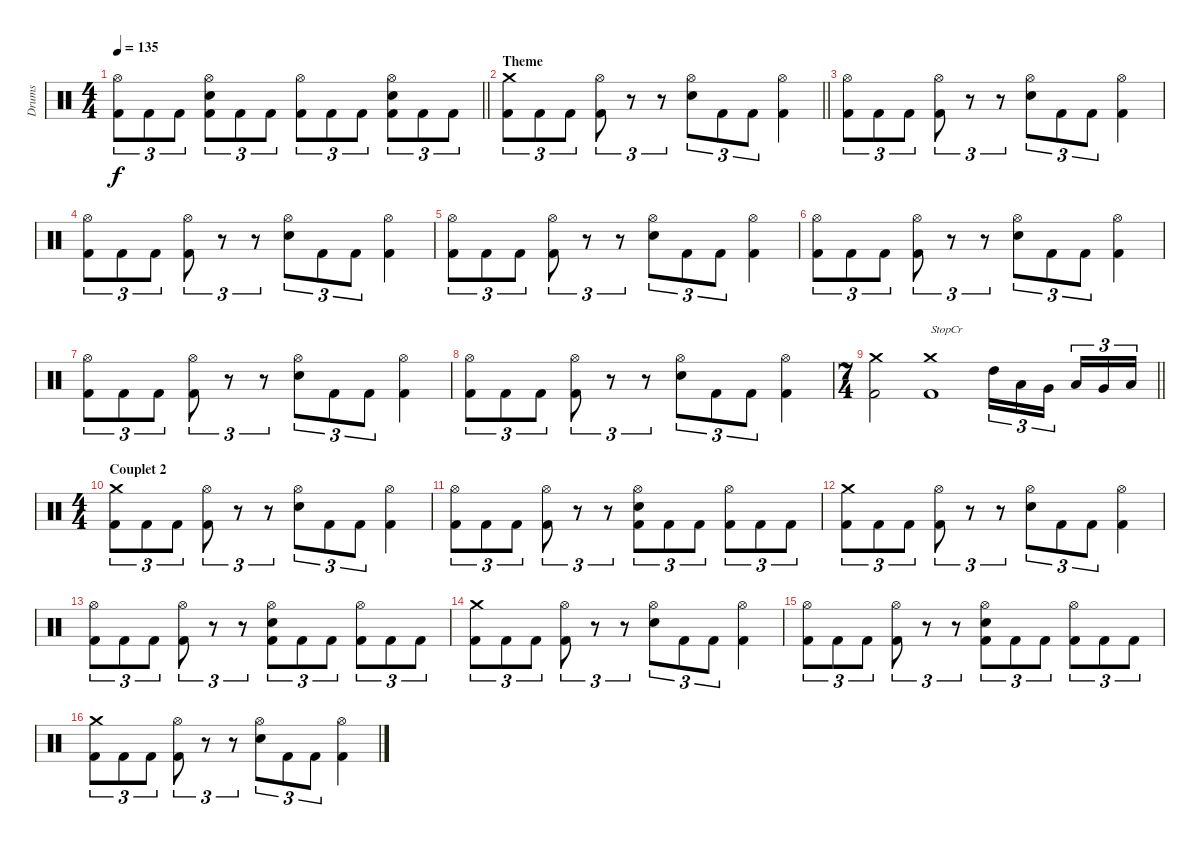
\track ("Drums" "Drums") {instrument percussion}
\staff {score}
\articulation defaults
\ts (4 4)
\tempo 135
\clef neutral
\barLineRight lightlight
\ks c
("Hi-Hat (open)" "Kick (hit) 2").8{tu (3 2) dy f} "Kick (hit) 2".8{tu (3 2)} "Kick (hit) 2".8{tu (3 2)} ("Hi-Hat (open)" "Snare (hit) 2" "Kick (hit) 2").8{tu (3 2)} "Kick (hit) 2".8{tu (3 2)} "Kick (hit) 2".8{tu (3 2)} ("Hi-Hat (open)" "Kick (hit) 2").8{tu (3 2)} "Kick (hit) 2".8{tu (3 2)} "Kick (hit) 2".8{tu (3 2)} ("Hi-Hat (open)" "Snare (hit) 2" "Kick (hit) 2").8{tu (3 2)} "Kick (hit) 2".8{tu (3 2)} "Kick (hit) 2".8{tu (3 2)} |
\section ("" "Theme")
\barLineRight lightlight
("Crash medium (hit)" "Kick (hit) 2").8{tu (3 2)} "Kick (hit) 2".8{tu (3 2)} "Kick (hit) 2".8{tu (3 2)} ("Hi-Hat (open)" "Kick (hit) 2").8{tu (3 2)} r.8{tu (3 2)} r.8{tu (3 2)} ("Hi-Hat (open)" "Snare (hit) 2").8{tu (3 2)} "Kick (hit) 2".8{tu (3 2)} "Kick (hit) 2".8{tu (3 2)} ("Hi-Hat (open)" "Kick (hit) 2").4 |
("Hi-Hat (open)" "Kick (hit) 2").8{tu (3 2)} "Kick (hit) 2".8{tu (3 2)} "Kick (hit) 2".8{tu (3 2)} ("Hi-Hat (open)" "Kick (hit) 2").8{tu (3 2)} r.8{tu (3 2)} r.8{tu (3 2)} ("Hi-Hat (open)" "Snare (hit) 2").8{tu (3 2)} "Kick (hit) 2".8{tu (3 2)} "Kick (hit) 2".8{tu (3 2)} ("Hi-Hat (open)" "Kick (hit) 2").4 |
("Hi-Hat (open)" "Kick (hit) 2").8{tu (3 2)} "Kick (hit) 2".8{tu (3 2)} "Kick (hit) 2".8{tu (3 2)} ("Hi-Hat (open)" "Kick (hit) 2").8{tu (3 2)} r.8{tu (3 2)} r.8{tu (3 2)} ("Hi-Hat (open)" "Snare (hit) 2").8{tu (3 2)} "Kick (hit) 2".8{tu (3 2)} "Kick (hit) 2".8{tu (3 2)} ("Hi-Hat (open)" "Kick (hit) 2").4 |
("Hi-Hat (open)" "Kick (hit) 2").8{tu (3 2)} "Kick (hit) 2".8{tu (3 2)} "Kick (hit) 2".8{tu (3 2)} ("Hi-Hat (open)" "Kick (hit) 2").8{tu (3 2)} r.8{tu (3 2)} r.8{tu (3 2)} ("Hi-Hat (open)" "Snare (hit) 2").8{tu (3 2)} "Kick (hit) 2".8{tu (3 2)} "Kick (hit) 2".8{tu (3 2)} ("Hi-Hat (open)" "Kick (hit) 2").4 |
("Hi-Hat (open)" "Kick (hit) 2").8{tu (3 2)} "Kick (hit) 2".8{tu (3 2)} "Kick (hit) 2".8{tu (3 2)} ("Hi-Hat (open)" "Kick (hit) 2").8{tu (3 2)} r.8{tu (3 2)} r.8{tu (3 2)} ("Hi-Hat (open)" "Snare (hit) 2").8{tu (3 2)} "Kick (hit) 2".8{tu (3 2)} "Kick (hit) 2".8{tu (3 2)} ("Hi-Hat (open)" "Kick (hit) 2").4 |
("Hi-Hat (open)" "Kick (hit) 2").8{tu (3 2)} "Kick (hit) 2".8{tu (3 2)} "Kick (hit) 2".8{tu (3 2)} ("Hi-Hat (open)" "Kick (hit) 2").8{tu (3 2)} r.8{tu (3 2)} r.8{tu (3 2)} ("Hi-Hat (open)" "Snare (hit) 2").8{tu (3 2)} "Kick (hit) 2".8{tu (3 2)} "Kick (hit) 2".8{tu (3 2)} ("Hi-Hat (open)" "Kick (hit) 2").4 |
("Hi-Hat (open)" "Kick (hit) 2").8{tu (3 2)} "Kick (hit) 2".8{tu (3 2)} "Kick (hit) 2".8{tu (3 2)} ("Hi-Hat (open)" "Kick (hit) 2").8{tu (3 2)} r.8{tu (3 2)} r.8{tu (3 2)} ("Hi-Hat (open)" "Snare (hit) 2").8{tu (3 2)} "Kick (hit) 2".8{tu (3 2)} "Kick (hit) 2".8{tu (3 2)} ("Hi-Hat (open)" "Kick (hit) 2").4 |
\ts (7 4)
\barLineRight lightlight
("Crash medium (hit)" "Kick (hit) 2").2 ("Crash medium (hit)" "Kick (hit) 2").1{txt "StopCr"} "High Tom (hit)".16{tu (3 2)} "Low Tom (hit)".16{tu (3 2)} "Very Low Tom (hit)".16{tu (3 2) beam splitsecondary} "Low Tom (hit)".16{tu (3 2)} "Very Low Tom (hit)".16{tu (3 2)} "Low Floor Tom (hit)".16{tu (3 2)} |
\ts (4 4)
\section ("" "Couplet 2")
("Crash medium (hit)" "Kick (hit) 2").8{tu (3 2)} "Kick (hit) 2".8{tu (3 2)} "Kick (hit) 2".8{tu (3 2)} ("Hi-Hat (open)" "Kick (hit) 2").8{tu (3 2)} r.8{tu (3 2)} r.8{tu (3 2)} ("Hi-Hat (open)" "Snare (hit) 2").8{tu (3 2)} "Kick (hit) 2".8{tu (3 2)} "Kick (hit) 2".8{tu (3 2)} ("Hi-Hat (open)" "Kick (hit) 2").4 |
("Hi-Hat (open)" "Kick (hit) 2").8{tu (3 2)} "Kick (hit) 2".8{tu (3 2)} "Kick (hit) 2".8{tu (3 2)} ("Hi-Hat (open)" "Kick (hit) 2").8{tu (3 2)} r.8{tu (3 2)} r.8{tu (3 2)} ("Hi-Hat (open)" "Snare (hit) 2" "Kick (hit) 2").8{tu (3 2)} "Kick (hit) 2".8{tu (3 2)} "Kick (hit) 2".8{tu (3 2)} ("Hi-Hat (open)" "Kick (hit) 2").8{tu (3 2)} "Kick (hit) 2".8{tu (3 2)} "Kick (hit) 2".8{tu (3 2)} |
("Crash medium (hit)" "Kick (hit) 2").8{tu (3 2)} "Kick (hit) 2".8{tu (3 2)} "Kick (hit) 2".8{tu (3 2)} ("Hi-Hat (open)" "Kick (hit) 2").8{tu (3 2)} r.8{tu (3 2)} r.8{tu (3 2)} ("Hi-Hat (open)" "Snare (hit) 2").8{tu (3 2)} "Kick (hit) 2".8{tu (3 2)} "Kick (hit) 2".8{tu (3 2)} ("Hi-Hat (open)" "Kick (hit) 2").4 |
("Hi-Hat (open)" "Kick (hit) 2").8{tu (3 2)} "Kick (hit) 2".8{tu (3 2)} "Kick (hit) 2".8{tu (3 2)} ("Hi-Hat (open)" "Kick (hit) 2").8{tu (3 2)} r.8{tu (3 2)} r.8{tu (3 2)} ("Hi-Hat (open)" "Snare (hit) 2" "Kick (hit) 2").8{tu (3 2)} "Kick (hit) 2".8{tu (3 2)} "Kick (hit) 2".8{tu (3 2)} ("Hi-Hat (open)" "Kick (hit) 2").8{tu (3 2)} "Kick (hit) 2".8{tu (3 2)} "Kick (hit) 2".8{tu (3 2)} |
("Crash medium (hit)" "Kick (hit) 2").8{tu (3 2)} "Kick (hit) 2".8{tu (3 2)} "Kick (hit) 2".8{tu (3 2)} ("Hi-Hat (open)" "Kick (hit) 2").8{tu (3 2)} r.8{tu (3 2)} r.8{tu (3 2)} ("Hi-Hat (open)" "Snare (hit) 2").8{tu (3 2)} "Kick (hit) 2".8{tu (3 2)} "Kick (hit) 2".8{tu (3 2)} ("Hi-Hat (open)" "Kick (hit) 2").4 |
("Hi-Hat (open)" "Kick (hit) 2").8{tu (3 2)} "Kick (hit) 2".8{tu (3 2)} "Kick (hit) 2".8{tu (3 2)} ("Hi-Hat (open)" "Kick (hit) 2").8{tu (3 2)} r.8{tu (3 2)} r.8{tu (3 2)} ("Hi-Hat (open)" "Snare (hit) 2" "Kick (hit) 2").8{tu (3 2)} "Kick (hit) 2".8{tu (3 2)} "Kick (hit) 2".8{tu (3 2)} ("Hi-Hat (open)" "Kick (hit) 2").8{tu (3 2)} "Kick (hit) 2".8{tu (3 2)} "Kick (hit) 2".8{tu (3 2)} |
("Crash medium (hit)" "Kick (hit) 2").8{tu (3 2)} "Kick (hit) 2".8{tu (3 2)} "Kick (hit) 2".8{tu (3 2)} ("Hi-Hat (open)" "Kick (hit) 2").8{tu (3 2)} r.8{tu (3 2)} r.8{tu (3 2)} ("Hi-Hat (open)" "Snare (hit) 2").8{tu (3 2)} "Kick (hit) 2".8{tu (3 2)} "Kick (hit) 2".8{tu (3 2)} ("Hi-Hat (open)" "Kick (hit) 2").4
